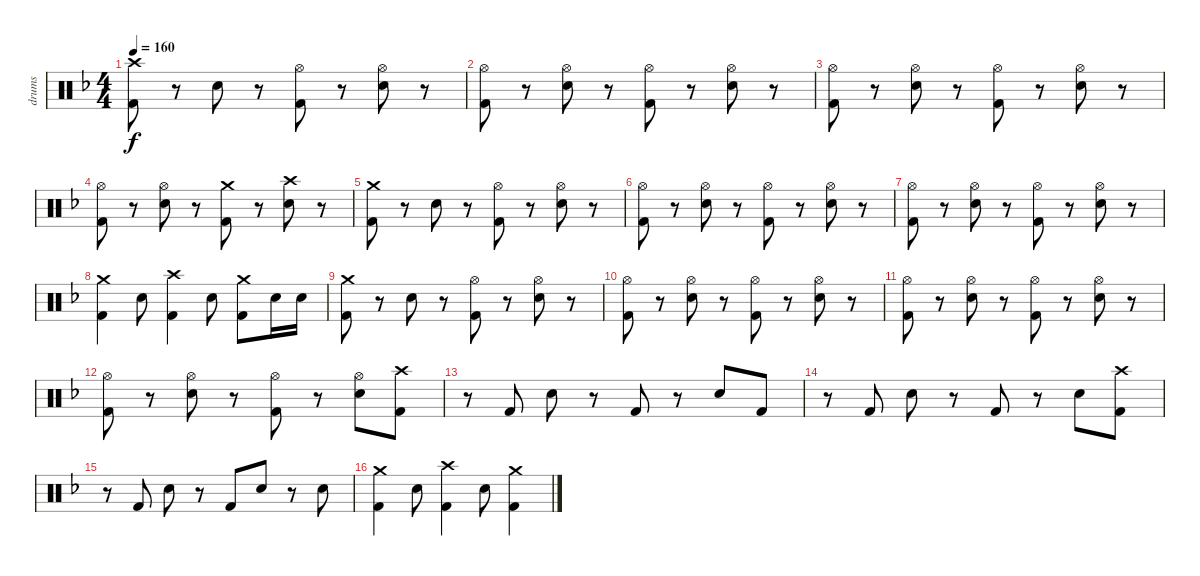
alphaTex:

\track ("drums" "drums") {instrument percussion}
\staff {score}
\articulation defaults
\ts (4 4)
\tempo 160
\clef neutral
\ks f
("Crash high (hit)" "Kick (hit) 2").8{dy f} r.8 "Electric Snare (hit)".8 r.8 ("Hi-Hat (open)" "Kick (hit) 2").8 r.8 ("Hi-Hat (open)" "Electric Snare (hit)").8 r.8 |
("Hi-Hat (open)" "Kick (hit) 2").8 r.8 ("Hi-Hat (open)" "Electric Snare (hit)").8 r.8 ("Hi-Hat (open)" "Kick (hit) 2").8 r.8 ("Hi-Hat (open)" "Electric Snare (hit)").8 r.8 |
("Hi-Hat (open)" "Kick (hit) 2").8 r.8 ("Hi-Hat (open)" "Electric Snare (hit)").8 r.8 ("Hi-Hat (open)" "Kick (hit) 2").8 r.8 ("Hi-Hat (open)" "Electric Snare (hit)").8 r.8 |
("Hi-Hat (open)" "Kick (hit) 2").8 r.8 ("Hi-Hat (open)" "Electric Snare (hit)").8 r.8 ("Crash medium (hit)" "Kick (hit) 2").8 r.8 ("Crash high (hit)" "Electric Snare (hit)").8 r.8 |
("Crash medium (hit)" "Kick (hit) 2").8 r.8 "Electric Snare (hit)".8 r.8 ("Hi-Hat (open)" "Kick (hit) 2").8 r.8 ("Hi-Hat (open)" "Electric Snare (hit)").8 r.8 |
("Hi-Hat (open)" "Kick (hit) 2").8 r.8 ("Hi-Hat (open)" "Electric Snare (hit)").8 r.8 ("Hi-Hat (open)" "Kick (hit) 2").8 r.8 ("Hi-Hat (open)" "Electric Snare (hit)").8 r.8 |
("Hi-Hat (open)" "Kick (hit) 2").8 r.8 ("Hi-Hat (open)" "Electric Snare (hit)").8 r.8 ("Hi-Hat (open)" "Kick (hit) 2").8 r.8 ("Hi-Hat (open)" "Electric Snare (hit)").8 r.8 |
("Crash medium (hit)" "Kick (hit) 2").4 "Electric Snare (hit)".8 ("Crash high (hit)" "Kick (hit) 2").4 "Electric Snare (hit)".8 ("Crash medium (hit)" "Kick (hit) 2").8 "Electric Snare (hit)".16 "Electric Snare (hit)".16 |
("Crash medium (hit)" "Kick (hit) 2").8 r.8 "Electric Snare (hit)".8 r.8 ("Hi-Hat (open)" "Kick (hit) 2").8 r.8 ("Hi-Hat (open)" "Electric Snare (hit)").8 r.8 |
("Hi-Hat (open)" "Kick (hit) 2").8 r.8 ("Hi-Hat (open)" "Electric Snare (hit)").8 r.8 ("Hi-Hat (open)" "Kick (hit) 2").8 r.8 ("Hi-Hat (open)" "Electric Snare (hit)").8 r.8 |
("Hi-Hat (open)" "Kick (hit) 2").8 r.8 ("Hi-Hat (open)" "Electric Snare (hit)").8 r.8 ("Hi-Hat (open)" "Kick (hit) 2").8 r.8 ("Hi-Hat (open)" "Electric Snare (hit)").8 r.8 |
("Hi-Hat (open)" "Kick (hit) 2").8 r.8 ("Hi-Hat (open)" "Electric Snare (hit)").8 r.8 ("Hi-Hat (open)" "Kick (hit) 2").8 r.8 ("Hi-Hat (open)" "Electric Snare (hit)").8 ("Crash high (hit)" "Kick (hit) 2").8 |
r.8 "Kick (hit) 2".8 "Electric Snare (hit)".8 r.8 "Kick (hit) 2".8 r.8 "Electric Snare (hit)".8 "Kick (hit) 2".8 |
r.8 "Kick (hit) 2".8 "Electric Snare (hit)".8 r.8 "Kick (hit) 2".8 r.8 "Electric Snare (hit)".8 ("Crash high (hit)" "Kick (hit) 2").8 |
r.8 "Kick (hit) 2".8 "Electric Snare (hit)".8 r.8 "Kick (hit) 2".8 "Electric Snare (hit)".8 r.8 "Electric Snare (hit)".8 |
("Crash medium (hit)" "Kick (hit) 2").4 "Electric Snare (hit)".8 ("Crash high (hit)" "Kick (hit) 2").4 "Electric Snare (hit)".8 ("Crash medium (hit)" "Kick (hit) 2").4
